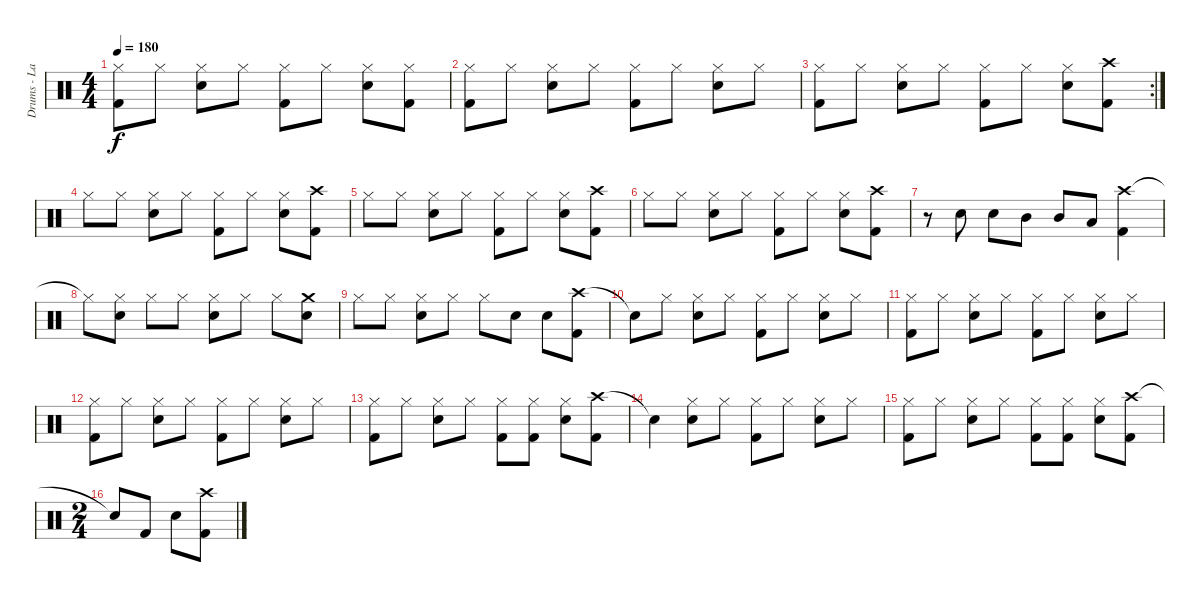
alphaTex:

\track ("Drums - Lars" "Drums - La") {instrument percussion}
\staff {score}
\articulation defaults
\ts (4 4)
\tempo 180
\clef neutral
\ks c
("Hi-Hat (closed)" "Kick (hit) 2").8{dy f} "Hi-Hat (closed)".8 ("Hi-Hat (closed)" "Snare (hit) 2").8 "Hi-Hat (closed)".8 ("Hi-Hat (closed)" "Kick (hit) 2").8 "Hi-Hat (closed)".8 ("Hi-Hat (closed)" "Snare (hit) 2").8 ("Hi-Hat (closed)" "Kick (hit) 2").8 |
("Hi-Hat (closed)" "Kick (hit) 2").8 "Hi-Hat (closed)".8 ("Hi-Hat (closed)" "Snare (hit) 2").8 "Hi-Hat (closed)".8 ("Hi-Hat (closed)" "Kick (hit) 2").8 "Hi-Hat (closed)".8 ("Hi-Hat (closed)" "Snare (hit) 2").8 "Hi-Hat (closed)".8 |
\rc 2
("Hi-Hat (closed)" "Kick (hit) 2").8 "Hi-Hat (closed)".8 ("Hi-Hat (closed)" "Snare (hit) 2").8 "Hi-Hat (closed)".8 ("Hi-Hat (closed)" "Kick (hit) 2").8 "Hi-Hat (closed)".8 ("Hi-Hat (closed)" "Snare (hit) 2").8 ("Crash high (hit)" "Kick (hit) 2").8 |
"Hi-Hat (closed)".8 "Hi-Hat (closed)".8 ("Hi-Hat (closed)" "Snare (hit) 2").8 "Hi-Hat (closed)".8 ("Hi-Hat (closed)" "Kick (hit) 2").8 "Hi-Hat (closed)".8 ("Hi-Hat (closed)" "Snare (hit) 2").8 ("Crash high (hit)" "Kick (hit) 2").8 |
"Hi-Hat (closed)".8 "Hi-Hat (closed)".8 ("Hi-Hat (closed)" "Snare (hit) 2").8 "Hi-Hat (closed)".8 ("Hi-Hat (closed)" "Kick (hit) 2").8 "Hi-Hat (closed)".8 ("Hi-Hat (closed)" "Snare (hit) 2").8 ("Crash high (hit)" "Kick (hit) 2").8 |
"Hi-Hat (closed)".8 "Hi-Hat (closed)".8 ("Hi-Hat (closed)" "Snare (hit) 2").8 "Hi-Hat (closed)".8 ("Hi-Hat (closed)" "Kick (hit) 2").8 "Hi-Hat (closed)".8 ("Hi-Hat (closed)" "Snare (hit) 2").8 ("Crash high (hit)" "Kick (hit) 2").8 |
r.8 "Snare (hit) 2".8 "Snare (hit) 2".8 "Mid Tom (hit)".8 "Mid Tom (hit)".8 "Low Tom (hit)".8 ("Crash high (hit)" "Kick (hit) 2").4 |
"Hi-Hat (closed)"{t}.8 ("Hi-Hat (closed)" "Snare (hit) 2").8 "Hi-Hat (closed)".8 "Hi-Hat (closed)".8 ("Hi-Hat (closed)" "Snare (hit) 2").8 "Hi-Hat (closed)".8 "Hi-Hat (closed)".8 ("Crash medium (hit)" "Snare (hit) 2").8 |
"Hi-Hat (closed)".8 "Hi-Hat (closed)".8 ("Hi-Hat (closed)" "Snare (hit) 2").8 "Hi-Hat (closed)".8 "Hi-Hat (closed)".8 "Snare (hit) 2".8 "Snare (hit) 2".8 ("Crash high (hit)" "Kick (hit) 2").8 |
"Snare (hit)"{t}.8 "Hi-Hat (closed)".8 ("Hi-Hat (closed)" "Snare (hit) 2").8 "Hi-Hat (closed)".8 ("Hi-Hat (closed)" "Kick (hit) 2").8 "Hi-Hat (closed)".8 ("Hi-Hat (closed)" "Snare (hit) 2").8 "Hi-Hat (closed)".8 |
("Hi-Hat (closed)" "Kick (hit) 2").8 "Hi-Hat (closed)".8 ("Hi-Hat (closed)" "Snare (hit) 2").8 "Hi-Hat (closed)".8 ("Hi-Hat (closed)" "Kick (hit) 2").8 "Hi-Hat (closed)".8 ("Hi-Hat (closed)" "Snare (hit) 2").8 "Hi-Hat (closed)".8 |
("Hi-Hat (closed)" "Kick (hit) 2").8 "Hi-Hat (closed)".8 ("Hi-Hat (closed)" "Snare (hit) 2").8 "Hi-Hat (closed)".8 ("Hi-Hat (closed)" "Kick (hit) 2").8 "Hi-Hat (closed)".8 ("Hi-Hat (closed)" "Snare (hit) 2").8 "Hi-Hat (closed)".8 |
("Hi-Hat (closed)" "Kick (hit) 2").8 "Hi-Hat (closed)".8 ("Hi-Hat (closed)" "Snare (hit) 2").8 "Hi-Hat (closed)".8 ("Hi-Hat (closed)" "Kick (hit) 2").8 ("Hi-Hat (closed)" "Kick (hit) 2").8 ("Hi-Hat (closed)" "Snare (hit) 2").8 ("Crash high (hit)" "Kick (hit) 2").8 |
"Snare (hit)"{t}.4 ("Hi-Hat (closed)" "Snare (hit) 2").8 "Hi-Hat (closed)".8 ("Hi-Hat (closed)" "Kick (hit) 2").8 "Hi-Hat (closed)".8 ("Hi-Hat (closed)" "Snare (hit) 2").8 "Hi-Hat (closed)".8 |
("Hi-Hat (closed)" "Kick (hit) 2").8 "Hi-Hat (closed)".8 ("Hi-Hat (closed)" "Snare (hit) 2").8 "Hi-Hat (closed)".8 ("Hi-Hat (closed)" "Kick (hit) 2").8 ("Hi-Hat (closed)" "Kick (hit) 2").8 ("Hi-Hat (closed)" "Snare (hit) 2").8 ("Crash high (hit)" "Kick (hit) 2").8 |
\ts (2 4)
"Snare (hit)"{t}.8 "Kick (hit) 2".8 "Snare (hit) 2".8 ("Crash high (hit)" "Kick (hit) 2").8
